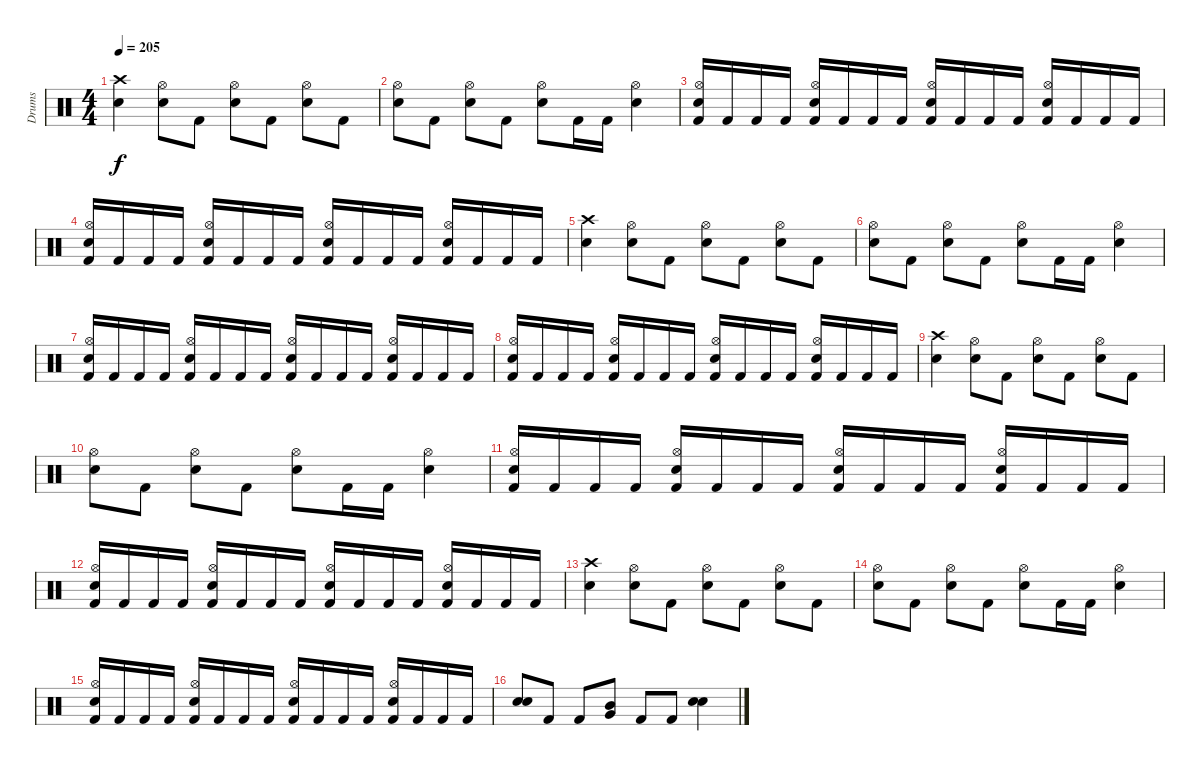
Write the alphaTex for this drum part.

\track ("Drums" "Drums") {instrument percussion bank 169}
\staff {score}
\articulation defaults
\ts (4 4)
\tempo 205
\clef neutral
\ks c
("Crash high (hit)" "Snare (hit) 2").4{dy f} ("Hi-Hat (open)" "Snare (hit) 2").8 "Kick (hit) 2".8 ("Hi-Hat (open)" "Snare (hit) 2").8 "Kick (hit) 2".8 ("Hi-Hat (open)" "Snare (hit) 2").8 "Kick (hit) 2".8 |
("Hi-Hat (open)" "Snare (hit) 2").8 "Kick (hit) 2".8 ("Hi-Hat (open)" "Snare (hit) 2").8 "Kick (hit) 2".8 ("Hi-Hat (open)" "Snare (hit) 2").8 "Kick (hit) 2".16 "Kick (hit) 2".16 ("Hi-Hat (open)" "Snare (hit) 2").4 |
("Hi-Hat (open)" "Snare (hit) 2" "Kick (hit) 2").16 "Kick (hit) 2".16 "Kick (hit) 2".16 "Kick (hit) 2".16 ("Hi-Hat (open)" "Snare (hit) 2" "Kick (hit) 2").16 "Kick (hit) 2".16 "Kick (hit) 2".16 "Kick (hit) 2".16 ("Hi-Hat (open)" "Snare (hit) 2" "Kick (hit) 2").16 "Kick (hit) 2".16 "Kick (hit) 2".16 "Kick (hit) 2".16 ("Hi-Hat (open)" "Snare (hit) 2" "Kick (hit) 2").16 "Kick (hit) 2".16 "Kick (hit) 2".16 "Kick (hit) 2".16 |
("Hi-Hat (open)" "Snare (hit) 2" "Kick (hit) 2").16 "Kick (hit) 2".16 "Kick (hit) 2".16 "Kick (hit) 2".16 ("Hi-Hat (open)" "Snare (hit) 2" "Kick (hit) 2").16 "Kick (hit) 2".16 "Kick (hit) 2".16 "Kick (hit) 2".16 ("Hi-Hat (open)" "Snare (hit) 2" "Kick (hit) 2").16 "Kick (hit) 2".16 "Kick (hit) 2".16 "Kick (hit) 2".16 ("Hi-Hat (open)" "Snare (hit) 2" "Kick (hit) 2").16 "Kick (hit) 2".16 "Kick (hit) 2".16 "Kick (hit) 2".16 |
("Crash high (hit)" "Snare (hit) 2").4 ("Hi-Hat (open)" "Snare (hit) 2").8 "Kick (hit) 2".8 ("Hi-Hat (open)" "Snare (hit) 2").8 "Kick (hit) 2".8 ("Hi-Hat (open)" "Snare (hit) 2").8 "Kick (hit) 2".8 |
("Hi-Hat (open)" "Snare (hit) 2").8 "Kick (hit) 2".8 ("Hi-Hat (open)" "Snare (hit) 2").8 "Kick (hit) 2".8 ("Hi-Hat (open)" "Snare (hit) 2").8 "Kick (hit) 2".16 "Kick (hit) 2".16 ("Hi-Hat (open)" "Snare (hit) 2").4 |
("Hi-Hat (open)" "Snare (hit) 2" "Kick (hit) 2").16 "Kick (hit) 2".16 "Kick (hit) 2".16 "Kick (hit) 2".16 ("Hi-Hat (open)" "Snare (hit) 2" "Kick (hit) 2").16 "Kick (hit) 2".16 "Kick (hit) 2".16 "Kick (hit) 2".16 ("Hi-Hat (open)" "Snare (hit) 2" "Kick (hit) 2").16 "Kick (hit) 2".16 "Kick (hit) 2".16 "Kick (hit) 2".16 ("Hi-Hat (open)" "Snare (hit) 2" "Kick (hit) 2").16 "Kick (hit) 2".16 "Kick (hit) 2".16 "Kick (hit) 2".16 |
("Hi-Hat (open)" "Snare (hit) 2" "Kick (hit) 2").16 "Kick (hit) 2".16 "Kick (hit) 2".16 "Kick (hit) 2".16 ("Hi-Hat (open)" "Snare (hit) 2" "Kick (hit) 2").16 "Kick (hit) 2".16 "Kick (hit) 2".16 "Kick (hit) 2".16 ("Hi-Hat (open)" "Snare (hit) 2" "Kick (hit) 2").16 "Kick (hit) 2".16 "Kick (hit) 2".16 "Kick (hit) 2".16 ("Hi-Hat (open)" "Snare (hit) 2" "Kick (hit) 2").16 "Kick (hit) 2".16 "Kick (hit) 2".16 "Kick (hit) 2".16 |
("Crash high (hit)" "Snare (hit) 2").4 ("Hi-Hat (open)" "Snare (hit) 2").8 "Kick (hit) 2".8 ("Hi-Hat (open)" "Snare (hit) 2").8 "Kick (hit) 2".8 ("Hi-Hat (open)" "Snare (hit) 2").8 "Kick (hit) 2".8 |
("Hi-Hat (open)" "Snare (hit) 2").8 "Kick (hit) 2".8 ("Hi-Hat (open)" "Snare (hit) 2").8 "Kick (hit) 2".8 ("Hi-Hat (open)" "Snare (hit) 2").8 "Kick (hit) 2".16 "Kick (hit) 2".16 ("Hi-Hat (open)" "Snare (hit) 2").4 |
("Hi-Hat (open)" "Snare (hit) 2" "Kick (hit) 2").16 "Kick (hit) 2".16 "Kick (hit) 2".16 "Kick (hit) 2".16 ("Hi-Hat (open)" "Snare (hit) 2" "Kick (hit) 2").16 "Kick (hit) 2".16 "Kick (hit) 2".16 "Kick (hit) 2".16 ("Hi-Hat (open)" "Snare (hit) 2" "Kick (hit) 2").16 "Kick (hit) 2".16 "Kick (hit) 2".16 "Kick (hit) 2".16 ("Hi-Hat (open)" "Snare (hit) 2" "Kick (hit) 2").16 "Kick (hit) 2".16 "Kick (hit) 2".16 "Kick (hit) 2".16 |
("Hi-Hat (open)" "Snare (hit) 2" "Kick (hit) 2").16 "Kick (hit) 2".16 "Kick (hit) 2".16 "Kick (hit) 2".16 ("Hi-Hat (open)" "Snare (hit) 2" "Kick (hit) 2").16 "Kick (hit) 2".16 "Kick (hit) 2".16 "Kick (hit) 2".16 ("Hi-Hat (open)" "Snare (hit) 2" "Kick (hit) 2").16 "Kick (hit) 2".16 "Kick (hit) 2".16 "Kick (hit) 2".16 ("Hi-Hat (open)" "Snare (hit) 2" "Kick (hit) 2").16 "Kick (hit) 2".16 "Kick (hit) 2".16 "Kick (hit) 2".16 |
("Crash high (hit)" "Snare (hit) 2").4 ("Hi-Hat (open)" "Snare (hit) 2").8 "Kick (hit) 2".8 ("Hi-Hat (open)" "Snare (hit) 2").8 "Kick (hit) 2".8 ("Hi-Hat (open)" "Snare (hit) 2").8 "Kick (hit) 2".8 |
("Hi-Hat (open)" "Snare (hit) 2").8 "Kick (hit) 2".8 ("Hi-Hat (open)" "Snare (hit) 2").8 "Kick (hit) 2".8 ("Hi-Hat (open)" "Snare (hit) 2").8 "Kick (hit) 2".16 "Kick (hit) 2".16 ("Hi-Hat (open)" "Snare (hit) 2").4 |
("Hi-Hat (open)" "Snare (hit) 2" "Kick (hit) 2").16 "Kick (hit) 2".16 "Kick (hit) 2".16 "Kick (hit) 2".16 ("Hi-Hat (open)" "Snare (hit) 2" "Kick (hit) 2").16 "Kick (hit) 2".16 "Kick (hit) 2".16 "Kick (hit) 2".16 ("Hi-Hat (open)" "Snare (hit) 2" "Kick (hit) 2").16 "Kick (hit) 2".16 "Kick (hit) 2".16 "Kick (hit) 2".16 ("Hi-Hat (open)" "Snare (hit) 2" "Kick (hit) 2").16 "Kick (hit) 2".16 "Kick (hit) 2".16 "Kick (hit) 2".16 |
("Snare (hit) 2" "Snare (hit) 2").8 "Kick (hit) 2".8 "Kick (hit) 2".8 ("Mid Tom (hit)" "Very Low Tom (hit)").8 "Kick (hit) 2".8 "Kick (hit) 2".8 ("Snare (hit) 2" "Snare (hit) 2").4
